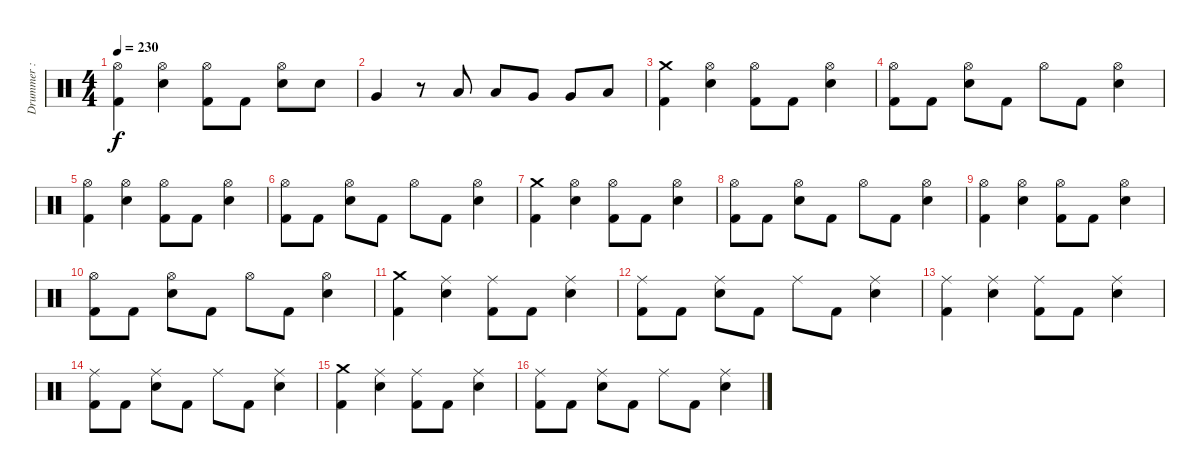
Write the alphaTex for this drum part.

\track ("Drummer : Tainaka Ritsu - Swan" "Drummer : ") {instrument percussion}
\staff {score}
\articulation defaults
\ts (4 4)
\tempo 230
\clef neutral
\ks c
("Hi-Hat (open)" "Kick (hit) 2").4{dy f} ("Hi-Hat (open)" "Electric Snare (hit)").4 ("Hi-Hat (open)" "Kick (hit) 2").8 "Kick (hit) 2".8 ("Hi-Hat (open)" "Electric Snare (hit)").8 "Electric Snare (hit)".8 |
"Very Low Tom (hit)".4 r.8 "Low Tom (hit)".8 "Low Tom (hit)".8 "Very Low Tom (hit)".8 "Very Low Tom (hit)".8 "Low Floor Tom (hit)".8 |
("Crash medium (hit)" "Kick (hit) 2").4 ("Hi-Hat (open)" "Electric Snare (hit)").4 ("Hi-Hat (open)" "Kick (hit) 2").8 "Kick (hit) 2".8 ("Hi-Hat (open)" "Electric Snare (hit)").4 |
("Hi-Hat (open)" "Kick (hit) 2").8 "Kick (hit) 2".8 ("Hi-Hat (open)" "Electric Snare (hit)").8 "Kick (hit) 2".8 "Hi-Hat (open)".8 "Kick (hit) 2".8 ("Hi-Hat (open)" "Electric Snare (hit)").4 |
("Hi-Hat (open)" "Kick (hit) 2").4 ("Hi-Hat (open)" "Electric Snare (hit)").4 ("Hi-Hat (open)" "Kick (hit) 2").8 "Kick (hit) 2".8 ("Hi-Hat (open)" "Electric Snare (hit)").4 |
("Hi-Hat (open)" "Kick (hit) 2").8 "Kick (hit) 2".8 ("Hi-Hat (open)" "Electric Snare (hit)").8 "Kick (hit) 2".8 "Hi-Hat (open)".8 "Kick (hit) 2".8 ("Hi-Hat (open)" "Electric Snare (hit)").4 |
("Crash medium (hit)" "Kick (hit) 2").4 ("Hi-Hat (open)" "Electric Snare (hit)").4 ("Hi-Hat (open)" "Kick (hit) 2").8 "Kick (hit) 2".8 ("Hi-Hat (open)" "Electric Snare (hit)").4 |
("Hi-Hat (open)" "Kick (hit) 2").8 "Kick (hit) 2".8 ("Hi-Hat (open)" "Electric Snare (hit)").8 "Kick (hit) 2".8 "Hi-Hat (open)".8 "Kick (hit) 2".8 ("Hi-Hat (open)" "Electric Snare (hit)").4 |
("Hi-Hat (open)" "Kick (hit) 2").4 ("Hi-Hat (open)" "Electric Snare (hit)").4 ("Hi-Hat (open)" "Kick (hit) 2").8 "Kick (hit) 2".8 ("Hi-Hat (open)" "Electric Snare (hit)").4 |
("Hi-Hat (open)" "Kick (hit) 2").8 "Kick (hit) 2".8 ("Hi-Hat (open)" "Electric Snare (hit)").8 "Kick (hit) 2".8 "Hi-Hat (open)".8 "Kick (hit) 2".8 ("Hi-Hat (open)" "Electric Snare (hit)").4 |
("Crash medium (hit)" "Kick (hit) 2").4 ("Ride (middle)" "Electric Snare (hit)").4 ("Ride (middle)" "Kick (hit) 2").8 "Kick (hit) 2".8 ("Ride (middle)" "Electric Snare (hit)").4 |
("Ride (middle)" "Kick (hit) 2").8 "Kick (hit) 2".8 ("Ride (middle)" "Electric Snare (hit)").8 "Kick (hit) 2".8 "Ride (middle)".8 "Kick (hit) 2".8 ("Ride (middle)" "Electric Snare (hit)").4 |
("Ride (middle)" "Kick (hit) 2").4 ("Ride (middle)" "Electric Snare (hit)").4 ("Ride (middle)" "Kick (hit) 2").8 "Kick (hit) 2".8 ("Ride (middle)" "Electric Snare (hit)").4 |
("Ride (middle)" "Kick (hit) 2").8 "Kick (hit) 2".8 ("Ride (middle)" "Electric Snare (hit)").8 "Kick (hit) 2".8 "Ride (middle)".8 "Kick (hit) 2".8 ("Ride (middle)" "Electric Snare (hit)").4 |
("Crash medium (hit)" "Kick (hit) 2").4 ("Ride (middle)" "Electric Snare (hit)").4 ("Ride (middle)" "Kick (hit) 2").8 "Kick (hit) 2".8 ("Ride (middle)" "Electric Snare (hit)").4 |
("Ride (middle)" "Kick (hit) 2").8 "Kick (hit) 2".8 ("Ride (middle)" "Electric Snare (hit)").8 "Kick (hit) 2".8 "Ride (middle)".8 "Kick (hit) 2".8 ("Ride (middle)" "Electric Snare (hit)").4
